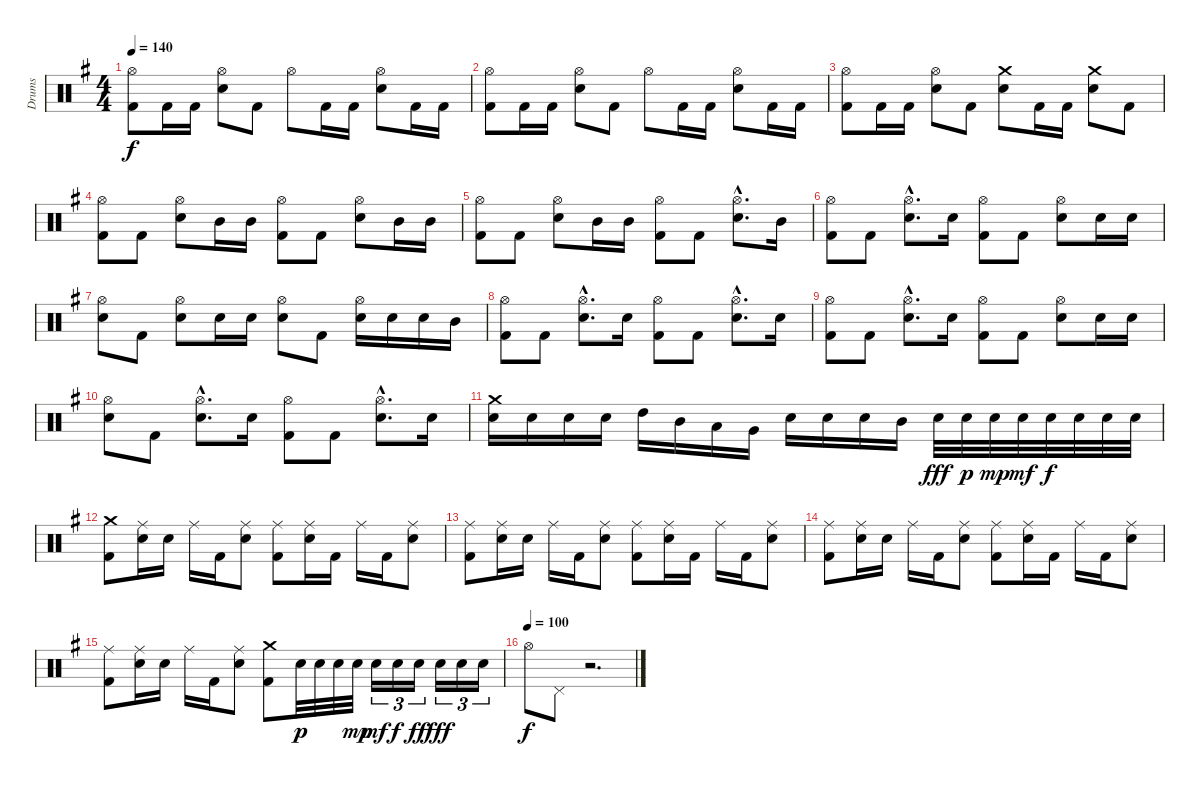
\track ("Drums" "Drums") {instrument percussion}
\staff {score}
\articulation defaults
\ts (4 4)
\tempo 140
\clef neutral
\ks g
("Hi-Hat (open)" "Kick (hit) 2").8{dy f} "Kick (hit) 2".16 "Kick (hit) 2".16 ("Hi-Hat (open)" "Electric Snare (hit)").8 "Kick (hit) 2".8 "Hi-Hat (open)".8 "Kick (hit) 2".16 "Kick (hit) 2".16 ("Hi-Hat (open)" "Electric Snare (hit)").8 "Kick (hit) 2".16 "Kick (hit) 2".16 |
("Hi-Hat (open)" "Kick (hit) 2").8 "Kick (hit) 2".16 "Kick (hit) 2".16 ("Hi-Hat (open)" "Electric Snare (hit)").8 "Kick (hit) 2".8 "Hi-Hat (open)".8 "Kick (hit) 2".16 "Kick (hit) 2".16 ("Hi-Hat (open)" "Electric Snare (hit)").8 "Kick (hit) 2".16 "Kick (hit) 2".16 |
("Hi-Hat (open)" "Kick (hit) 2").8 "Kick (hit) 2".16 "Kick (hit) 2".16 ("Hi-Hat (open)" "Electric Snare (hit)").8 "Kick (hit) 2".8 ("Crash medium (hit)" "Electric Snare (hit)").8 "Kick (hit) 2".16 "Kick (hit) 2".16 ("Crash medium (hit)" "Electric Snare (hit)").8 "Kick (hit) 2".8 |
("Hi-Hat (open)" "Kick (hit) 2").8 "Kick (hit) 2".8 ("Hi-Hat (open)" "Electric Snare (hit)").8 "Mid Tom (hit)".16 "Mid Tom (hit)".16 ("Hi-Hat (open)" "Kick (hit) 2").8 "Kick (hit) 2".8 ("Hi-Hat (open)" "Electric Snare (hit)").8 "Mid Tom (hit)".16 "Mid Tom (hit)".16 |
("Hi-Hat (open)" "Kick (hit) 2").8 "Kick (hit) 2".8 ("Hi-Hat (open)" "Electric Snare (hit)").8 "Mid Tom (hit)".16 "Mid Tom (hit)".16 ("Hi-Hat (open)" "Kick (hit) 2").8 "Kick (hit) 2".8 ("Hi-Hat (open)"{hac} "Electric Snare (hit)"{hac}).8{d} "Mid Tom (hit)".16 |
("Hi-Hat (open)" "Kick (hit) 2").8 "Kick (hit) 2".8 ("Hi-Hat (open)"{hac} "Electric Snare (hit)"{hac}).8{d} "Electric Snare (hit)".16 ("Hi-Hat (open)" "Kick (hit) 2").8 "Kick (hit) 2".8 ("Hi-Hat (open)" "Electric Snare (hit)").8 "Electric Snare (hit)".16 "Electric Snare (hit)".16 |
("Hi-Hat (open)" "Electric Snare (hit)").8 "Kick (hit) 2".8 ("Hi-Hat (open)" "Electric Snare (hit)").8 "Electric Snare (hit)".16 "Electric Snare (hit)".16 ("Hi-Hat (open)" "Electric Snare (hit)").8 "Kick (hit) 2".8 ("Hi-Hat (open)" "Electric Snare (hit)").16 "Electric Snare (hit)".16 "Electric Snare (hit)".16 "Mid Tom (hit)".16 |
("Hi-Hat (open)" "Kick (hit) 2").8 "Kick (hit) 2".8 ("Hi-Hat (open)"{hac} "Electric Snare (hit)"{hac}).8{d} "Electric Snare (hit)".16 ("Hi-Hat (open)" "Kick (hit) 2").8 "Kick (hit) 2".8 ("Hi-Hat (open)"{hac} "Electric Snare (hit)"{hac}).8{d} "Electric Snare (hit)".16 |
("Hi-Hat (open)" "Kick (hit) 2").8 "Kick (hit) 2".8 ("Hi-Hat (open)"{hac} "Electric Snare (hit)"{hac}).8{d} "Electric Snare (hit)".16 ("Hi-Hat (open)" "Kick (hit) 2").8 "Kick (hit) 2".8 ("Hi-Hat (open)" "Electric Snare (hit)").8 "Electric Snare (hit)".16 "Electric Snare (hit)".16 |
("Hi-Hat (open)" "Electric Snare (hit)").8 "Kick (hit) 2".8 ("Hi-Hat (open)"{hac} "Electric Snare (hit)"{hac}).8{d} "Electric Snare (hit)".16 ("Hi-Hat (open)" "Kick (hit) 2").8 "Kick (hit) 2".8 ("Hi-Hat (open)"{hac} "Electric Snare (hit)"{hac}).8{d} "Electric Snare (hit)".16 |
("Crash medium (hit)" "Electric Snare (hit)").16 "Electric Snare (hit)".16 "Electric Snare (hit)".16 "Electric Snare (hit)".16 "High Tom (hit)".16 "Mid Tom (hit)".16 "Low Tom (hit)".16 "Very Low Tom (hit)".16 "Electric Snare (hit)".16 "Electric Snare (hit)".16 "Electric Snare (hit)".16 "Mid Tom (hit)".16 "Electric Snare (hit)".32{dy fff} "Electric Snare (hit)".32{dy p} "Electric Snare (hit)".32{dy mp} "Electric Snare (hit)".32{dy mf} "Electric Snare (hit)".32{dy f} "Electric Snare (hit)".32 "Electric Snare (hit)".32 "Electric Snare (hit)".32 |
("Crash medium (hit)" "Kick (hit) 2").8 ("Ride (middle)" "Electric Snare (hit)").16 "Electric Snare (hit)".16 "Ride (middle)".16 "Kick (hit) 2".16 ("Ride (middle)" "Electric Snare (hit)").8 ("Ride (middle)" "Kick (hit) 2").8 ("Ride (middle)" "Electric Snare (hit)").16 "Kick (hit) 2".16 "Ride (middle)".16 "Kick (hit) 2".16 ("Ride (middle)" "Electric Snare (hit)").8 |
("Ride (middle)" "Kick (hit) 2").8 ("Ride (middle)" "Electric Snare (hit)").16 "Electric Snare (hit)".16 "Ride (middle)".16 "Kick (hit) 2".16 ("Ride (middle)" "Electric Snare (hit)").8 ("Ride (middle)" "Kick (hit) 2").8 ("Ride (middle)" "Electric Snare (hit)").16 "Kick (hit) 2".16 "Ride (middle)".16 "Kick (hit) 2".16 ("Ride (middle)" "Electric Snare (hit)").8 |
("Ride (middle)" "Kick (hit) 2").8 ("Ride (middle)" "Electric Snare (hit)").16 "Electric Snare (hit)".16 "Ride (middle)".16 "Kick (hit) 2".16 ("Ride (middle)" "Electric Snare (hit)").8 ("Ride (middle)" "Kick (hit) 2").8 ("Ride (middle)" "Electric Snare (hit)").16 "Kick (hit) 2".16 "Ride (middle)".16 "Kick (hit) 2".16 ("Ride (middle)" "Electric Snare (hit)").8 |
("Ride (middle)" "Kick (hit) 2").8 ("Ride (middle)" "Electric Snare (hit)").16 "Electric Snare (hit)".16 "Ride (middle)".16 "Kick (hit) 2".16 ("Ride (middle)" "Electric Snare (hit)").8 ("Crash medium (hit)" "Kick (hit) 2").8 "Electric Snare (hit)".32{dy p} "Electric Snare (hit)".32 "Electric Snare (hit)".32 "Electric Snare (hit)".32{dy mp} "Electric Snare (hit)".16{tu (3 2) dy mf} "Electric Snare (hit)".16{tu (3 2) dy f} "Electric Snare (hit)".16{tu (3 2) dy ff} "Electric Snare (hit)".16{tu (3 2) dy fff} "Electric Snare (hit)".16{tu (3 2)} "Electric Snare (hit)".16{tu (3 2)} |
\tempo (100)
"Hi-Hat (open)".8{dy f} "Pedal Hi-Hat (hit)".8 r.2{d}
